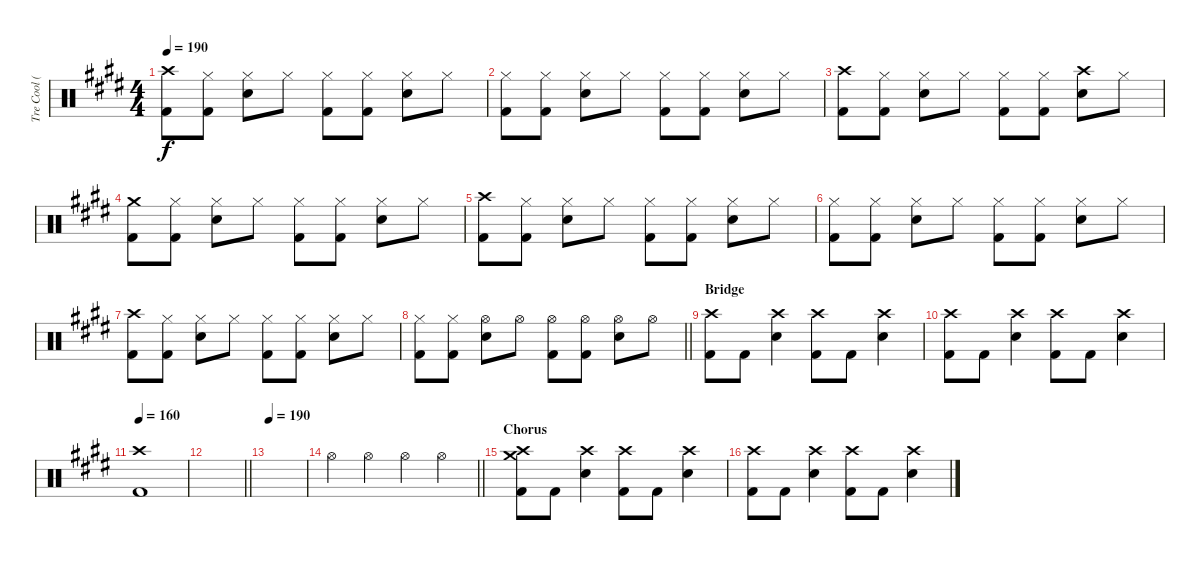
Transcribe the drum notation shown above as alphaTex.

\track ("Tre Cool (Drums)" "Tre Cool (") {instrument percussion}
\staff {score}
\articulation defaults
\ts (4 4)
\tempo 190
\clef neutral
\ks e
("Crash high (hit)" "Kick (hit) 2").8{dy f} ("Hi-Hat (closed)" "Kick (hit) 2").8 ("Hi-Hat (closed)" "Electric Snare (hit)").8 "Hi-Hat (closed)".8 ("Hi-Hat (closed)" "Kick (hit) 2").8 ("Hi-Hat (closed)" "Kick (hit) 2").8 ("Hi-Hat (closed)" "Electric Snare (hit)").8 "Hi-Hat (closed)".8 |
("Hi-Hat (closed)" "Kick (hit) 2").8 ("Hi-Hat (closed)" "Kick (hit) 2").8 ("Hi-Hat (closed)" "Electric Snare (hit)").8 "Hi-Hat (closed)".8 ("Hi-Hat (closed)" "Kick (hit) 2").8 ("Hi-Hat (closed)" "Kick (hit) 2").8 ("Hi-Hat (closed)" "Electric Snare (hit)").8 "Hi-Hat (closed)".8 |
("Crash high (hit)" "Kick (hit) 2").8 ("Hi-Hat (closed)" "Kick (hit) 2").8 ("Hi-Hat (closed)" "Electric Snare (hit)").8 "Hi-Hat (closed)".8 ("Hi-Hat (closed)" "Kick (hit) 2").8 ("Hi-Hat (closed)" "Kick (hit) 2").8 ("Crash high (hit)" "Electric Snare (hit)").8 "Hi-Hat (closed)".8 |
("Crash medium (hit)" "Kick (hit) 2").8 ("Hi-Hat (closed)" "Kick (hit) 2").8 ("Hi-Hat (closed)" "Electric Snare (hit)").8 "Hi-Hat (closed)".8 ("Hi-Hat (closed)" "Kick (hit) 2").8 ("Hi-Hat (closed)" "Kick (hit) 2").8 ("Hi-Hat (closed)" "Electric Snare (hit)").8 "Hi-Hat (closed)".8 |
("Crash high (hit)" "Kick (hit) 2").8 ("Hi-Hat (closed)" "Kick (hit) 2").8 ("Hi-Hat (closed)" "Electric Snare (hit)").8 "Hi-Hat (closed)".8 ("Hi-Hat (closed)" "Kick (hit) 2").8 ("Hi-Hat (closed)" "Kick (hit) 2").8 ("Hi-Hat (closed)" "Electric Snare (hit)").8 "Hi-Hat (closed)".8 |
("Hi-Hat (closed)" "Kick (hit) 2").8 ("Hi-Hat (closed)" "Kick (hit) 2").8 ("Hi-Hat (closed)" "Electric Snare (hit)").8 "Hi-Hat (closed)".8 ("Hi-Hat (closed)" "Kick (hit) 2").8 ("Hi-Hat (closed)" "Kick (hit) 2").8 ("Hi-Hat (closed)" "Electric Snare (hit)").8 "Hi-Hat (closed)".8 |
("Crash high (hit)" "Kick (hit) 2").8 ("Hi-Hat (closed)" "Kick (hit) 2").8 ("Hi-Hat (closed)" "Electric Snare (hit)").8 "Hi-Hat (closed)".8 ("Hi-Hat (closed)" "Kick (hit) 2").8 ("Hi-Hat (closed)" "Kick (hit) 2").8 ("Hi-Hat (closed)" "Electric Snare (hit)").8 "Hi-Hat (closed)".8 |
\barLineRight lightlight
("Hi-Hat (closed)" "Kick (hit) 2").8 ("Hi-Hat (closed)" "Kick (hit) 2").8 ("Hi-Hat (open)" "Electric Snare (hit)").8 "Hi-Hat (open)".8 ("Hi-Hat (open)" "Kick (hit) 2").8 ("Hi-Hat (open)" "Kick (hit) 2").8 ("Hi-Hat (open)" "Electric Snare (hit)").8 "Hi-Hat (open)".8 |
\section ("" "Bridge")
("Kick (hit) 2" "Crash high (hit)").8 "Kick (hit) 2".8 ("Electric Snare (hit)" "Crash high (hit)").4 ("Kick (hit) 2" "Crash high (hit)").8 "Kick (hit) 2".8 ("Electric Snare (hit)" "Crash high (hit)").4 |
("Kick (hit) 2" "Crash high (hit)").8 "Kick (hit) 2".8 ("Electric Snare (hit)" "Crash high (hit)").4 ("Kick (hit) 2" "Crash high (hit)").8 "Kick (hit) 2".8 ("Electric Snare (hit)" "Crash high (hit)").4 |
\tempo 160
("Kick (hit) 2" "Crash high (hit)").1 |
\barLineRight lightlight
|
\tempo 190
|
\barLineRight lightlight "Hi-Hat (open)".4 "Hi-Hat (open)".4 "Hi-Hat (open)".4 "Hi-Hat (open)".4
|
\section ("" "Chorus")
("Kick (hit) 2" "Crash medium (hit)" "Crash high (hit)").8 "Kick (hit) 2".8 ("Electric Snare (hit)" "Crash high (hit)").4 ("Kick (hit) 2" "Crash high (hit)").8 "Kick (hit) 2".8 ("Electric Snare (hit)" "Crash high (hit)").4 |
("Kick (hit) 2" "Crash high (hit)").8 "Kick (hit) 2".8 ("Electric Snare (hit)" "Crash high (hit)").4 ("Kick (hit) 2" "Crash high (hit)").8 "Kick (hit) 2".8 ("Electric Snare (hit)" "Crash high (hit)").4
